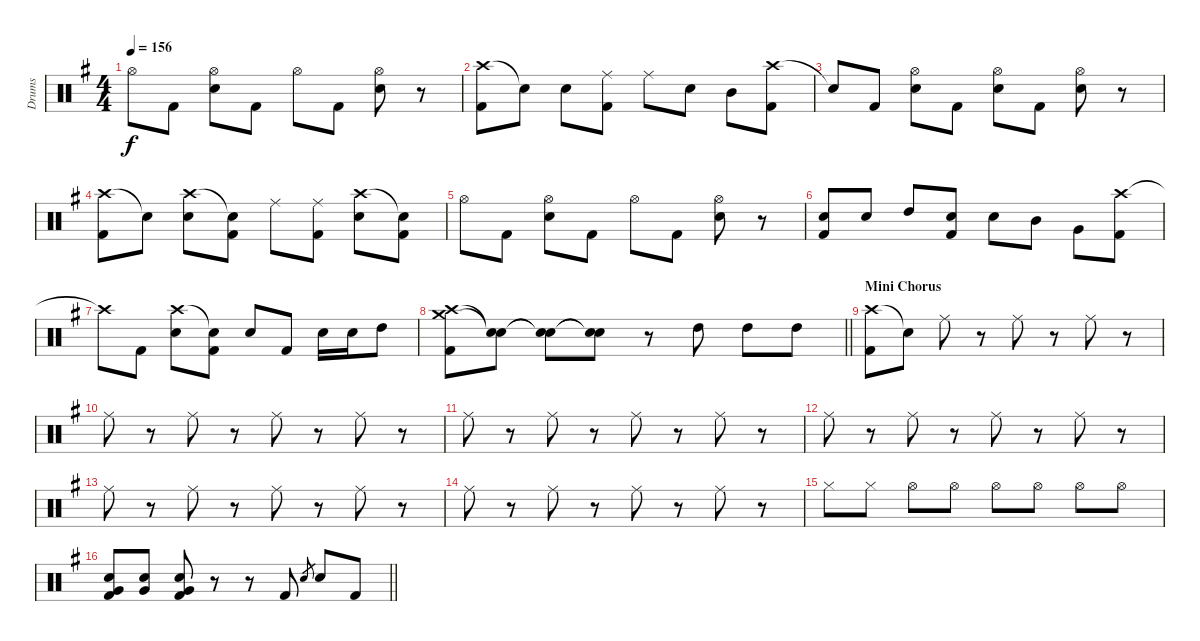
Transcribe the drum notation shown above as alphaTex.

\track ("Drums" "Drums") {instrument percussion}
\staff {score}
\articulation defaults
\ts (4 4)
\tempo 156
\clef neutral
\ks g "Hi-Hat (open)".8{dy f} "Kick (hit) 2".8
("Hi-Hat (open)" "Snare (hit) 2").8 "Kick (hit) 2".8 "Hi-Hat (open)".8 "Kick (hit) 2".8 ("Hi-Hat (open)" "Snare (hit) 2").8 r.8 |
("Crash high (hit)" "Kick (hit) 2").8 "Snare (hit)"{t}.8 "Snare (hit) 2".8 ("Ride (middle)" "Kick (hit) 2").8 "Ride (middle)".8 "Snare (hit) 2".8 "Mid Tom (hit)".8 ("Crash high (hit)" "Kick (hit) 2").8 |
"Snare (hit)"{t}.8 "Kick (hit) 2".8 ("Hi-Hat (open)" "Snare (hit) 2").8 "Kick (hit) 2".8 ("Hi-Hat (open)" "Snare (hit) 2").8 "Kick (hit) 2".8 ("Hi-Hat (open)" "Snare (hit) 2").8 r.8 |
("Crash high (hit)" "Kick (hit) 2").8 "Snare (hit)"{t}.8 ("Crash high (hit)" "Snare (hit) 2").8 ("Snare (hit)"{t} "Kick (hit) 2").8 "Ride (middle)".8 ("Ride (middle)" "Kick (hit) 2").8 ("Crash high (hit)" "Snare (hit) 2").8 ("Snare (hit)"{t} "Kick (hit) 2").8 |
"Hi-Hat (open)".8 "Kick (hit) 2".8 ("Hi-Hat (open)" "Snare (hit) 2").8 "Kick (hit) 2".8 "Hi-Hat (open)".8 "Kick (hit) 2".8 ("Hi-Hat (open)" "Snare (hit) 2").8 r.8 |
("Snare (hit) 2" "Kick (hit) 2").8 "Snare (hit) 2".8 "High Tom (hit)".8 ("Snare (hit) 2" "Kick (hit) 2").8 "Snare (hit) 2".8 "Mid Tom (hit)".8 "Very Low Tom (hit)".8 ("Crash high (hit)" "Kick (hit) 2").8 |
"Crash high (hit)"{t}.8 "Kick (hit) 2".8 ("Crash high (hit)" "Snare (hit) 2").8 ("Snare (hit)"{t} "Kick (hit) 2").8 "Snare (hit) 2".8 "Kick (hit) 2".8 "Snare (hit) 2".16 "Snare (hit) 2".16 "High Tom (hit)".8 |
\barLineRight lightlight
("Crash high (hit)" "Crash medium (hit)" "Kick (hit) 2").8 ("Snare (hit)"{t} "Snare (hit)"{t}).8 ("Snare (hit)"{t} "Snare (hit)"{t}).8 ("Snare (hit)"{t} "Snare (hit)"{t}).8 r.8 "High Tom (hit)".8 "High Tom (hit)".8 "High Tom (hit)".8 |
\section ("" "Mini Chorus")
("Crash high (hit)" "Kick (hit) 2").8 "Snare (hit)"{t}.8 "Ride (middle)".8 r.8 "Ride (middle)".8 r.8 "Ride (middle)".8 r.8 |
"Ride (middle)".8 r.8 "Ride (middle)".8 r.8 "Ride (middle)".8 r.8 "Ride (middle)".8 r.8 |
"Ride (middle)".8 r.8 "Ride (middle)".8 r.8 "Ride (middle)".8 r.8 "Ride (middle)".8 r.8 |
"Ride (middle)".8 r.8 "Ride (middle)".8 r.8 "Ride (middle)".8 r.8 "Ride (middle)".8 r.8 |
"Ride (middle)".8 r.8 "Ride (middle)".8 r.8 "Ride (middle)".8 r.8 "Ride (middle)".8 r.8 |
"Ride (middle)".8 r.8 "Ride (middle)".8 r.8 "Ride (middle)".8 r.8 "Ride (middle)".8 r.8 |
"Hi-Hat (closed)".8 "Hi-Hat (closed)".8 "Hi-Hat (open)".8 "Hi-Hat (open)".8 "Hi-Hat (open)".8 "Hi-Hat (open)".8 "Hi-Hat (open)".8 "Hi-Hat (open)".8 |
\barLineRight lightlight
("Snare (hit) 2" "Very Low Tom (hit)" "Kick (hit) 2").8 ("Snare (hit) 2" "Very Low Tom (hit)").8 ("Snare (hit) 2" "Very Low Tom (hit)" "Kick (hit) 2").8 r.8 r.8 "Kick (hit) 2".8 "Snare (hit) 2".8{gr} "Snare (hit) 2".8 "Kick (hit) 2".8
